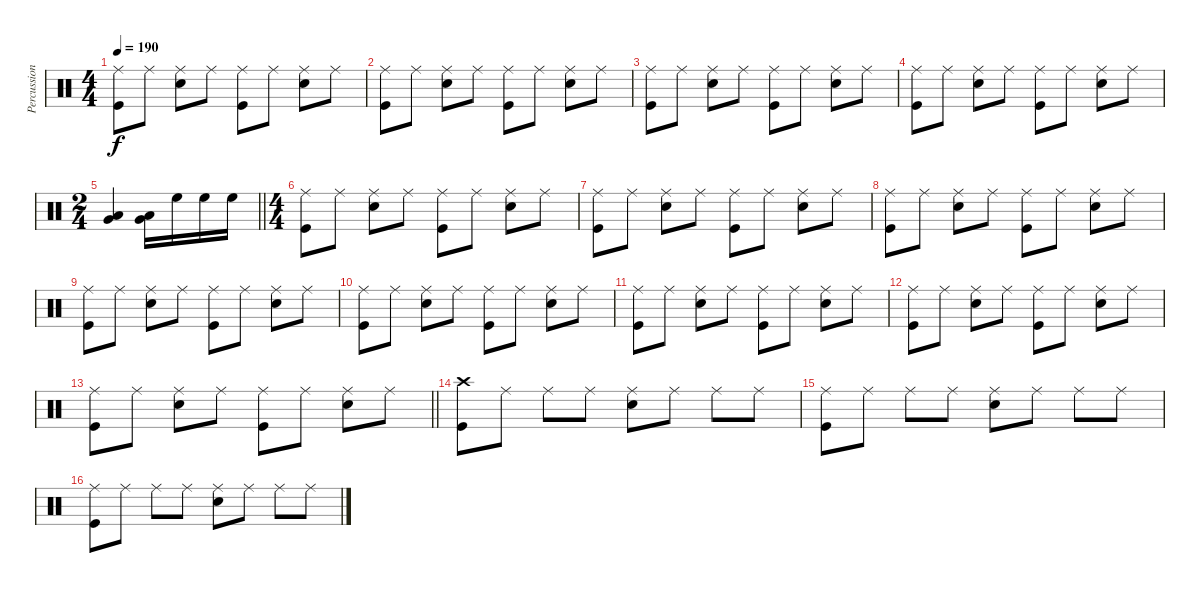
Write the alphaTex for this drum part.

\track ("Percussion" "Percussion") {instrument percussion}
\staff {score}
\articulation defaults
\ts (4 4)
\tempo 190
\clef neutral
\ks c
("Ride (middle)" "Kick (hit)").8{dy f} "Ride (middle)".8 ("Ride (middle)" "Snare (hit) 2").8 "Ride (middle)".8 ("Ride (middle)" "Kick (hit)").8 "Ride (middle)".8 ("Ride (middle)" "Snare (hit) 2").8 "Ride (middle)".8 |
("Ride (middle)" "Kick (hit)").8 "Ride (middle)".8 ("Ride (middle)" "Snare (hit) 2").8 "Ride (middle)".8 ("Ride (middle)" "Kick (hit)").8 "Ride (middle)".8 ("Ride (middle)" "Snare (hit) 2").8 "Ride (middle)".8 |
("Ride (middle)" "Kick (hit)").8 "Ride (middle)".8 ("Ride (middle)" "Snare (hit) 2").8 "Ride (middle)".8 ("Ride (middle)" "Kick (hit)").8 "Ride (middle)".8 ("Ride (middle)" "Snare (hit) 2").8 "Ride (middle)".8 |
("Ride (middle)" "Kick (hit)").8 "Ride (middle)".8 ("Ride (middle)" "Snare (hit) 2").8 "Ride (middle)".8 ("Ride (middle)" "Kick (hit)").8 "Ride (middle)".8 ("Ride (middle)" "Snare (hit) 2").8 "Ride (middle)".8 |
\ts (2 4)
\barLineRight lightlight
("Very Low Tom (hit)" "Low Floor Tom (hit)").4 ("Very Low Tom (hit)" "Low Floor Tom (hit)").16 "High Floor Tom (hit)".16 "High Floor Tom (hit)".16 "High Floor Tom (hit)".16 |
\ts (4 4)
\section ("" "")
("Ride (middle)" "Kick (hit)").8 "Ride (middle)".8 ("Ride (middle)" "Snare (hit) 2").8 "Ride (middle)".8 ("Ride (middle)" "Kick (hit)").8 "Ride (middle)".8 ("Ride (middle)" "Snare (hit) 2").8 "Ride (middle)".8 |
("Ride (middle)" "Kick (hit)").8 "Ride (middle)".8 ("Ride (middle)" "Snare (hit) 2").8 "Ride (middle)".8 ("Ride (middle)" "Kick (hit)").8 "Ride (middle)".8 ("Ride (middle)" "Snare (hit) 2").8 "Ride (middle)".8 |
("Ride (middle)" "Kick (hit)").8 "Ride (middle)".8 ("Ride (middle)" "Snare (hit) 2").8 "Ride (middle)".8 ("Ride (middle)" "Kick (hit)").8 "Ride (middle)".8 ("Ride (middle)" "Snare (hit) 2").8 "Ride (middle)".8 |
("Ride (middle)" "Kick (hit)").8 "Ride (middle)".8 ("Ride (middle)" "Snare (hit) 2").8 "Ride (middle)".8 ("Ride (middle)" "Kick (hit)").8 "Ride (middle)".8 ("Ride (middle)" "Snare (hit) 2").8 "Ride (middle)".8 |
("Ride (middle)" "Kick (hit)").8 "Ride (middle)".8 ("Ride (middle)" "Snare (hit) 2").8 "Ride (middle)".8 ("Ride (middle)" "Kick (hit)").8 "Ride (middle)".8 ("Ride (middle)" "Snare (hit) 2").8 "Ride (middle)".8 |
("Ride (middle)" "Kick (hit)").8 "Ride (middle)".8 ("Ride (middle)" "Snare (hit) 2").8 "Ride (middle)".8 ("Ride (middle)" "Kick (hit)").8 "Ride (middle)".8 ("Ride (middle)" "Snare (hit) 2").8 "Ride (middle)".8 |
("Ride (middle)" "Kick (hit)").8 "Ride (middle)".8 ("Ride (middle)" "Snare (hit) 2").8 "Ride (middle)".8 ("Ride (middle)" "Kick (hit)").8 "Ride (middle)".8 ("Ride (middle)" "Snare (hit) 2").8 "Ride (middle)".8 |
\barLineRight lightlight
("Ride (middle)" "Kick (hit)").8 "Ride (middle)".8 ("Ride (middle)" "Snare (hit) 2").8 "Ride (middle)".8 ("Ride (middle)" "Kick (hit)").8 "Ride (middle)".8 ("Ride (middle)" "Snare (hit) 2").8 "Ride (middle)".8 |
\section ("" "")
("Crash high (hit)" "Kick (hit)").8 "Ride (middle)".8 "Ride (middle)".8 "Ride (middle)".8 ("Ride (middle)" "Snare (hit) 2").8 "Ride (middle)".8 "Ride (middle)".8 "Ride (middle)".8 |
("Ride (middle)" "Kick (hit)").8 "Ride (middle)".8 "Ride (middle)".8 "Ride (middle)".8 ("Ride (middle)" "Snare (hit) 2").8 "Ride (middle)".8 "Ride (middle)".8 "Ride (middle)".8 |
("Ride (middle)" "Kick (hit)").8 "Ride (middle)".8 "Ride (middle)".8 "Ride (middle)".8 ("Ride (middle)" "Snare (hit) 2").8 "Ride (middle)".8 "Ride (middle)".8 "Ride (middle)".8
